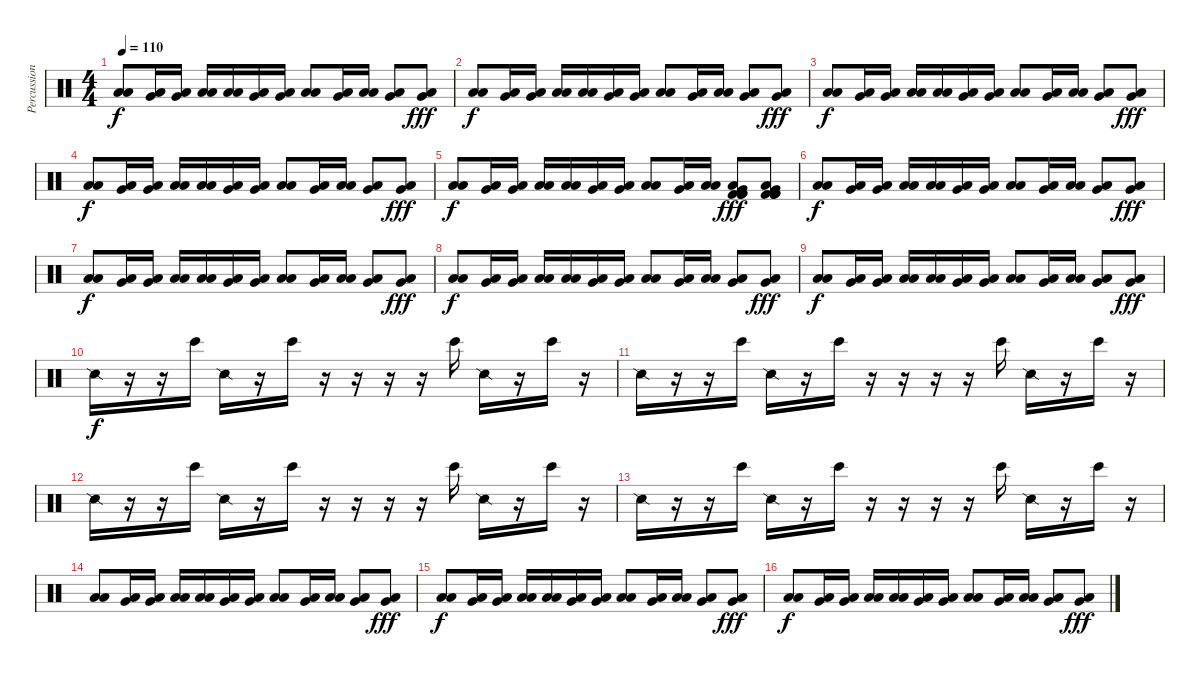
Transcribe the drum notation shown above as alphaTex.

\track ("Percussion" "Percussion") {instrument percussion}
\staff {score}
\articulation defaults
\ts (4 4)
\tempo 110
\clef neutral
\ks c
("Low Floor Tom (hit)" "Low Floor Tom (hit)").8{dy f} ("Low Tom (hit)" "Very Low Tom (hit)").16 ("Low Tom (hit)" "Very Low Tom (hit)").16 ("Low Floor Tom (hit)" "Low Floor Tom (hit)").16 ("Low Floor Tom (hit)" "Low Floor Tom (hit)").16 ("Low Tom (hit)" "Very Low Tom (hit)").16 ("Low Tom (hit)" "Very Low Tom (hit)").16 ("Low Floor Tom (hit)" "Low Floor Tom (hit)").8 ("Low Tom (hit)" "Very Low Tom (hit)").16 ("Low Tom (hit)" "Low Tom (hit)").16 ("Low Floor Tom (hit)" "Very Low Tom (hit)").8 ("Low Floor Tom (hit)" "Very Low Tom (hit)").8{dy fff} |
("Low Floor Tom (hit)" "Low Floor Tom (hit)").8{dy f} ("Low Tom (hit)" "Very Low Tom (hit)").16 ("Low Tom (hit)" "Very Low Tom (hit)").16 ("Low Floor Tom (hit)" "Low Floor Tom (hit)").16 ("Low Floor Tom (hit)" "Low Floor Tom (hit)").16 ("Low Tom (hit)" "Very Low Tom (hit)").16 ("Low Tom (hit)" "Very Low Tom (hit)").16 ("Low Floor Tom (hit)" "Low Floor Tom (hit)").8 ("Low Tom (hit)" "Very Low Tom (hit)").16 ("Low Tom (hit)" "Low Tom (hit)").16 ("Low Floor Tom (hit)" "Very Low Tom (hit)").8 ("Low Floor Tom (hit)" "Very Low Tom (hit)").8{dy fff} |
("Low Floor Tom (hit)" "Low Floor Tom (hit)").8{dy f} ("Low Tom (hit)" "Very Low Tom (hit)").16 ("Low Tom (hit)" "Very Low Tom (hit)").16 ("Low Floor Tom (hit)" "Low Floor Tom (hit)").16 ("Low Floor Tom (hit)" "Low Floor Tom (hit)").16 ("Low Tom (hit)" "Very Low Tom (hit)").16 ("Low Tom (hit)" "Very Low Tom (hit)").16 ("Low Floor Tom (hit)" "Low Floor Tom (hit)").8 ("Low Tom (hit)" "Very Low Tom (hit)").16 ("Low Tom (hit)" "Low Tom (hit)").16 ("Low Floor Tom (hit)" "Very Low Tom (hit)").8 ("Low Floor Tom (hit)" "Very Low Tom (hit)").8{dy fff} |
("Low Floor Tom (hit)" "Low Floor Tom (hit)").8{dy f} ("Low Tom (hit)" "Very Low Tom (hit)").16 ("Low Tom (hit)" "Very Low Tom (hit)").16 ("Low Floor Tom (hit)" "Low Floor Tom (hit)").16 ("Low Floor Tom (hit)" "Low Floor Tom (hit)").16 ("Low Tom (hit)" "Very Low Tom (hit)").16 ("Low Tom (hit)" "Very Low Tom (hit)").16 ("Low Floor Tom (hit)" "Low Floor Tom (hit)").8 ("Low Tom (hit)" "Very Low Tom (hit)").16 ("Low Tom (hit)" "Low Tom (hit)").16 ("Low Floor Tom (hit)" "Very Low Tom (hit)").8 ("Low Floor Tom (hit)" "Very Low Tom (hit)").8{dy fff} |
("Low Floor Tom (hit)" "Low Floor Tom (hit)").8{dy f} ("Low Tom (hit)" "Very Low Tom (hit)").16 ("Low Tom (hit)" "Very Low Tom (hit)").16 ("Low Floor Tom (hit)" "Low Floor Tom (hit)").16 ("Low Floor Tom (hit)" "Low Floor Tom (hit)").16 ("Low Tom (hit)" "Very Low Tom (hit)").16 ("Low Tom (hit)" "Very Low Tom (hit)").16 ("Low Floor Tom (hit)" "Low Floor Tom (hit)").8 ("Low Tom (hit)" "Very Low Tom (hit)").16 ("Low Tom (hit)" "Low Tom (hit)").16 ("Low Floor Tom (hit)" "Very Low Tom (hit)" "Kick (hit) 2" "Kick (hit) 2" "Kick (hit) 2").8{dy fff} ("Low Floor Tom (hit)" "Very Low Tom (hit)" "Kick (hit) 2" "Kick (hit) 2" "Kick (hit) 2").8 |
("Low Floor Tom (hit)" "Low Floor Tom (hit)").8{dy f} ("Low Tom (hit)" "Very Low Tom (hit)").16 ("Low Tom (hit)" "Very Low Tom (hit)").16 ("Low Floor Tom (hit)" "Low Floor Tom (hit)").16 ("Low Floor Tom (hit)" "Low Floor Tom (hit)").16 ("Low Tom (hit)" "Very Low Tom (hit)").16 ("Low Tom (hit)" "Very Low Tom (hit)").16 ("Low Floor Tom (hit)" "Low Floor Tom (hit)").8 ("Low Tom (hit)" "Very Low Tom (hit)").16 ("Low Tom (hit)" "Low Tom (hit)").16 ("Low Floor Tom (hit)" "Very Low Tom (hit)").8 ("Low Floor Tom (hit)" "Very Low Tom (hit)").8{dy fff} |
("Low Floor Tom (hit)" "Low Floor Tom (hit)").8{dy f} ("Low Tom (hit)" "Very Low Tom (hit)").16 ("Low Tom (hit)" "Very Low Tom (hit)").16 ("Low Floor Tom (hit)" "Low Floor Tom (hit)").16 ("Low Floor Tom (hit)" "Low Floor Tom (hit)").16 ("Low Tom (hit)" "Very Low Tom (hit)").16 ("Low Tom (hit)" "Very Low Tom (hit)").16 ("Low Floor Tom (hit)" "Low Floor Tom (hit)").8 ("Low Tom (hit)" "Very Low Tom (hit)").16 ("Low Tom (hit)" "Low Tom (hit)").16 ("Low Floor Tom (hit)" "Very Low Tom (hit)").8 ("Low Floor Tom (hit)" "Very Low Tom (hit)").8{dy fff} |
("Low Floor Tom (hit)" "Low Floor Tom (hit)").8{dy f} ("Low Tom (hit)" "Very Low Tom (hit)").16 ("Low Tom (hit)" "Very Low Tom (hit)").16 ("Low Floor Tom (hit)" "Low Floor Tom (hit)").16 ("Low Floor Tom (hit)" "Low Floor Tom (hit)").16 ("Low Tom (hit)" "Very Low Tom (hit)").16 ("Low Tom (hit)" "Very Low Tom (hit)").16 ("Low Floor Tom (hit)" "Low Floor Tom (hit)").8 ("Low Tom (hit)" "Very Low Tom (hit)").16 ("Low Tom (hit)" "Low Tom (hit)").16 ("Low Floor Tom (hit)" "Very Low Tom (hit)").8 ("Low Floor Tom (hit)" "Very Low Tom (hit)").8{dy fff} |
("Low Floor Tom (hit)" "Low Floor Tom (hit)").8{dy f} ("Low Tom (hit)" "Very Low Tom (hit)").16 ("Low Tom (hit)" "Very Low Tom (hit)").16 ("Low Floor Tom (hit)" "Low Floor Tom (hit)").16 ("Low Floor Tom (hit)" "Low Floor Tom (hit)").16 ("Low Tom (hit)" "Very Low Tom (hit)").16 ("Low Tom (hit)" "Very Low Tom (hit)").16 ("Low Floor Tom (hit)" "Low Floor Tom (hit)").8 ("Low Tom (hit)" "Very Low Tom (hit)").16 ("Low Tom (hit)" "Low Tom (hit)").16 ("Low Floor Tom (hit)" "Very Low Tom (hit)").8 ("Low Floor Tom (hit)" "Very Low Tom (hit)").8{dy fff} |
"Snare (side stick) 2".16{dy f} r.16 r.16 "Bongo High (hit)".16 "Snare (side stick) 2".16 r.16 "Bongo High (hit)".16 r.16 r.16 r.16 r.16 "Bongo High (hit)".16 "Snare (side stick) 2".16 r.16 "Bongo High (hit)".16 r.16 |
"Snare (side stick) 2".16 r.16 r.16 "Bongo High (hit)".16 "Snare (side stick) 2".16 r.16 "Bongo High (hit)".16 r.16 r.16 r.16 r.16 "Bongo High (hit)".16 "Snare (side stick) 2".16 r.16 "Bongo High (hit)".16 r.16 |
"Snare (side stick) 2".16 r.16 r.16 "Bongo High (hit)".16 "Snare (side stick) 2".16 r.16 "Bongo High (hit)".16 r.16 r.16 r.16 r.16 "Bongo High (hit)".16 "Snare (side stick) 2".16 r.16 "Bongo High (hit)".16 r.16 |
"Snare (side stick) 2".16 r.16 r.16 "Bongo High (hit)".16 "Snare (side stick) 2".16 r.16 "Bongo High (hit)".16 r.16 r.16 r.16 r.16 "Bongo High (hit)".16 "Snare (side stick) 2".16 r.16 "Bongo High (hit)".16 r.16 |
("Low Floor Tom (hit)" "Low Floor Tom (hit)").8 ("Low Tom (hit)" "Very Low Tom (hit)").16 ("Low Tom (hit)" "Very Low Tom (hit)").16 ("Low Floor Tom (hit)" "Low Floor Tom (hit)").16 ("Low Floor Tom (hit)" "Low Floor Tom (hit)").16 ("Low Tom (hit)" "Very Low Tom (hit)").16 ("Low Tom (hit)" "Very Low Tom (hit)").16 ("Low Floor Tom (hit)" "Low Floor Tom (hit)").8 ("Low Tom (hit)" "Very Low Tom (hit)").16 ("Low Tom (hit)" "Low Tom (hit)").16 ("Low Floor Tom (hit)" "Very Low Tom (hit)").8 ("Low Floor Tom (hit)" "Very Low Tom (hit)").8{dy fff} |
("Low Floor Tom (hit)" "Low Floor Tom (hit)").8{dy f} ("Low Tom (hit)" "Very Low Tom (hit)").16 ("Low Tom (hit)" "Very Low Tom (hit)").16 ("Low Floor Tom (hit)" "Low Floor Tom (hit)").16 ("Low Floor Tom (hit)" "Low Floor Tom (hit)").16 ("Low Tom (hit)" "Very Low Tom (hit)").16 ("Low Tom (hit)" "Very Low Tom (hit)").16 ("Low Floor Tom (hit)" "Low Floor Tom (hit)").8 ("Low Tom (hit)" "Very Low Tom (hit)").16 ("Low Tom (hit)" "Low Tom (hit)").16 ("Low Floor Tom (hit)" "Very Low Tom (hit)").8 ("Low Floor Tom (hit)" "Very Low Tom (hit)").8{dy fff} |
("Low Floor Tom (hit)" "Low Floor Tom (hit)").8{dy f} ("Low Tom (hit)" "Very Low Tom (hit)").16 ("Low Tom (hit)" "Very Low Tom (hit)").16 ("Low Floor Tom (hit)" "Low Floor Tom (hit)").16 ("Low Floor Tom (hit)" "Low Floor Tom (hit)").16 ("Low Tom (hit)" "Very Low Tom (hit)").16 ("Low Tom (hit)" "Very Low Tom (hit)").16 ("Low Floor Tom (hit)" "Low Floor Tom (hit)").8 ("Low Tom (hit)" "Very Low Tom (hit)").16 ("Low Tom (hit)" "Low Tom (hit)").16 ("Low Floor Tom (hit)" "Very Low Tom (hit)").8 ("Low Floor Tom (hit)" "Very Low Tom (hit)").8{dy fff}
